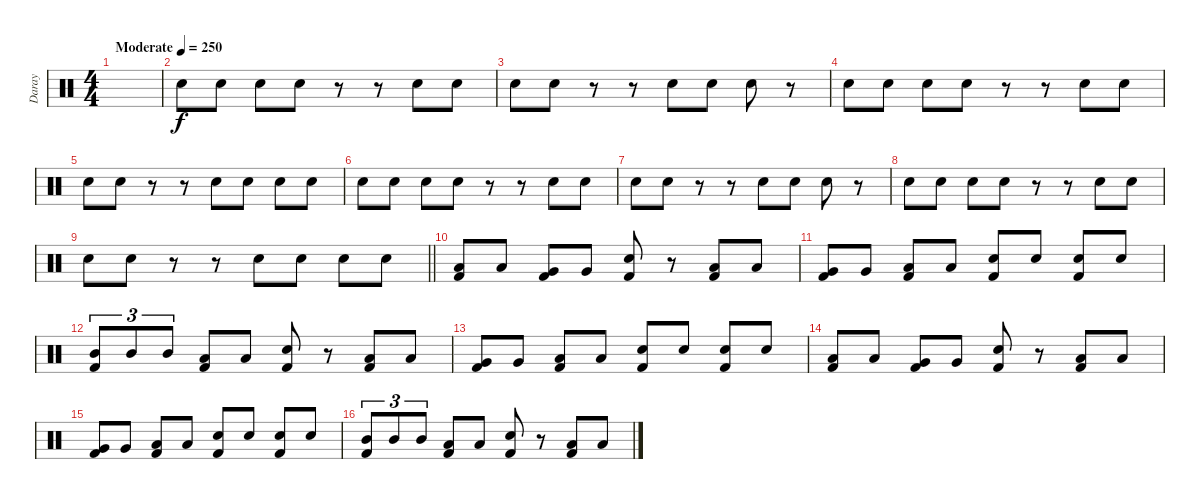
\track ("Daray" "Daray") {instrument percussion}
\staff {score}
\articulation defaults
\ts (4 4)
\tempo (250 "Moderate")
\clef neutral
\ks c
|
"Electric Snare (hit)".8 "Electric Snare (hit)".8 "Electric Snare (hit)".8 "Electric Snare (hit)".8 r.8 r.8 "Electric Snare (hit)".8 "Electric Snare (hit)".8 |
"Electric Snare (hit)".8 "Electric Snare (hit)".8 r.8 r.8 "Electric Snare (hit)".8 "Electric Snare (hit)".8 "Electric Snare (hit)".8 r.8 |
"Electric Snare (hit)".8 "Electric Snare (hit)".8 "Electric Snare (hit)".8 "Electric Snare (hit)".8 r.8 r.8 "Electric Snare (hit)".8 "Electric Snare (hit)".8 |
"Electric Snare (hit)".8 "Electric Snare (hit)".8 r.8 r.8 "Electric Snare (hit)".8 "Electric Snare (hit)".8 "Electric Snare (hit)".8 "Electric Snare (hit)".8 |
"Electric Snare (hit)".8 "Electric Snare (hit)".8 "Electric Snare (hit)".8 "Electric Snare (hit)".8 r.8 r.8 "Electric Snare (hit)".8 "Electric Snare (hit)".8 |
"Electric Snare (hit)".8 "Electric Snare (hit)".8 r.8 r.8 "Electric Snare (hit)".8 "Electric Snare (hit)".8 "Electric Snare (hit)".8 r.8 |
"Electric Snare (hit)".8 "Electric Snare (hit)".8 "Electric Snare (hit)".8 "Electric Snare (hit)".8 r.8 r.8 "Electric Snare (hit)".8 "Electric Snare (hit)".8 |
\barLineRight lightlight "Electric Snare (hit)".8 "Electric Snare (hit)".8
r.8 r.8 "Electric Snare (hit)".8 "Electric Snare (hit)".8 "Electric Snare (hit)".8 "Electric Snare (hit)".8 |
("Low Tom (hit)" "Kick (hit) 2").8 "Low Tom (hit)".8 ("Very Low Tom (hit)" "Kick (hit) 2").8 "Very Low Tom (hit)".8 ("Electric Snare (hit)" "Kick (hit) 2").8 r.8 ("Low Tom (hit)" "Kick (hit) 2").8 "Low Tom (hit)".8 |
("Very Low Tom (hit)" "Kick (hit) 2").8 "Very Low Tom (hit)".8 ("Low Floor Tom (hit)" "Kick (hit) 2").8 "Low Floor Tom (hit)".8 ("Electric Snare (hit)" "Kick (hit) 2").8 "Electric Snare (hit)".8 ("Electric Snare (hit)" "Kick (hit) 2").8 "Electric Snare (hit)".8 |
("Mid Tom (hit)" "Kick (hit) 2").8{tu (3 2)} "Mid Tom (hit)".8{tu (3 2)} "Mid Tom (hit)".8{tu (3 2)} ("Low Tom (hit)" "Kick (hit) 2").8 "Low Tom (hit)".8 ("Electric Snare (hit)" "Kick (hit) 2").8 r.8 ("Low Tom (hit)" "Kick (hit) 2").8 "Low Tom (hit)".8 |
("Very Low Tom (hit)" "Kick (hit) 2").8 "Very Low Tom (hit)".8 ("Low Floor Tom (hit)" "Kick (hit) 2").8 "Low Floor Tom (hit)".8 ("Electric Snare (hit)" "Kick (hit) 2").8 "Electric Snare (hit)".8 ("Electric Snare (hit)" "Kick (hit) 2").8 "Electric Snare (hit)".8 |
("Low Tom (hit)" "Kick (hit) 2").8 "Low Tom (hit)".8 ("Very Low Tom (hit)" "Kick (hit) 2").8 "Very Low Tom (hit)".8 ("Electric Snare (hit)" "Kick (hit) 2").8 r.8 ("Low Tom (hit)" "Kick (hit) 2").8 "Low Tom (hit)".8 |
("Very Low Tom (hit)" "Kick (hit) 2").8 "Very Low Tom (hit)".8 ("Low Floor Tom (hit)" "Kick (hit) 2").8 "Low Floor Tom (hit)".8 ("Electric Snare (hit)" "Kick (hit) 2").8 "Electric Snare (hit)".8 ("Electric Snare (hit)" "Kick (hit) 2").8 "Electric Snare (hit)".8 |
("Mid Tom (hit)" "Kick (hit) 2").8{tu (3 2)} "Mid Tom (hit)".8{tu (3 2)} "Mid Tom (hit)".8{tu (3 2)} ("Low Tom (hit)" "Kick (hit) 2").8 "Low Tom (hit)".8 ("Electric Snare (hit)" "Kick (hit) 2").8 r.8 ("Low Tom (hit)" "Kick (hit) 2").8 "Low Tom (hit)".8
